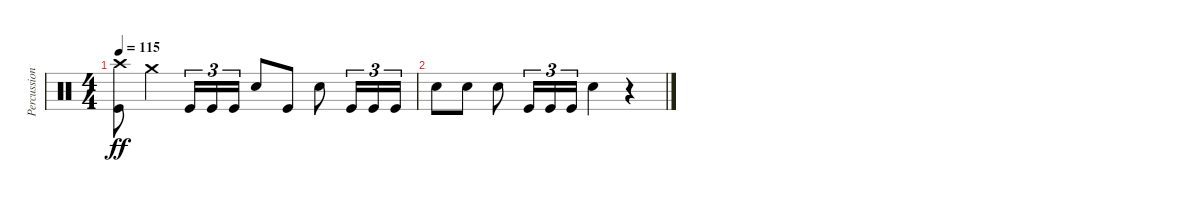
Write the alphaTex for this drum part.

\track ("Percussion" "Percussion") {instrument percussion}
\staff {score}
\articulation defaults
\ts (4 4)
\tempo 115
\clef neutral
\ks c
("Crash high (hit)" "Kick (hit)").8{dy ff} "Crash medium (hit)".4 "Kick (hit)".16{tu (3 2)} "Kick (hit)".16{tu (3 2)} "Kick (hit)".16{tu (3 2)} "Snare (hit) 2".8 "Kick (hit)".8 "Snare (hit) 2".8 "Kick (hit)".16{tu (3 2)} "Kick (hit)".16{tu (3 2)} "Kick (hit)".16{tu (3 2)} |
"Snare (hit) 2".8 "Snare (hit) 2".8 "Snare (hit) 2".8 "Kick (hit)".16{tu (3 2)} "Kick (hit)".16{tu (3 2)} "Kick (hit)".16{tu (3 2)} "Snare (hit) 2".4 r.4
